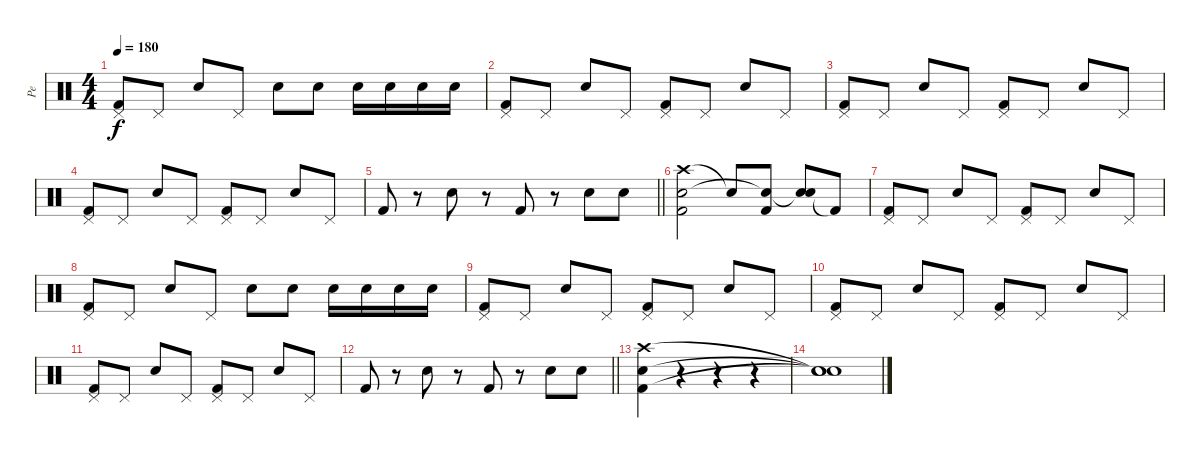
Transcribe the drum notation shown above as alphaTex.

\track ("Pe" "Pe") {instrument percussion}
\staff {score}
\articulation defaults
\ts (4 4)
\tempo 180
\clef neutral
\ks c
("Kick (hit) 2" "Pedal Hi-Hat (hit)").8{dy f} "Pedal Hi-Hat (hit)".8 "Snare (hit) 2".8 "Pedal Hi-Hat (hit)".8 "Snare (hit) 2".8 "Snare (hit) 2".8 "Snare (hit) 2".16 "Snare (hit) 2".16 "Snare (hit) 2".16 "Snare (hit) 2".16 |
("Kick (hit) 2" "Pedal Hi-Hat (hit)").8 "Pedal Hi-Hat (hit)".8 "Snare (hit) 2".8 "Pedal Hi-Hat (hit)".8 ("Kick (hit) 2" "Pedal Hi-Hat (hit)").8 "Pedal Hi-Hat (hit)".8 "Snare (hit) 2".8 "Pedal Hi-Hat (hit)".8 |
("Kick (hit) 2" "Pedal Hi-Hat (hit)").8 "Pedal Hi-Hat (hit)".8 "Snare (hit) 2".8 "Pedal Hi-Hat (hit)".8 ("Kick (hit) 2" "Pedal Hi-Hat (hit)").8 "Pedal Hi-Hat (hit)".8 "Snare (hit) 2".8 "Pedal Hi-Hat (hit)".8 |
("Kick (hit) 2" "Pedal Hi-Hat (hit)").8 "Pedal Hi-Hat (hit)".8 "Snare (hit) 2".8 "Pedal Hi-Hat (hit)".8 ("Kick (hit) 2" "Pedal Hi-Hat (hit)").8 "Pedal Hi-Hat (hit)".8 "Snare (hit) 2".8 "Pedal Hi-Hat (hit)".8 |
\barLineRight lightlight "Kick (hit) 2".8
r.8 "Snare (hit) 2".8 r.8 "Kick (hit) 2".8 r.8 "Snare (hit) 2".8 "Snare (hit) 2".8 |
("Crash high (hit)" "Snare (hit) 2" "Kick (hit) 2").2 "Snare (hit)"{t}.8 ("Kick (hit) 2" "Snare (hit) 2"{t}).8 ("Snare (hit) 2" "Snare (hit) 2"{t}).8 "Kick (hit) 2"{t}.8 |
("Kick (hit) 2" "Pedal Hi-Hat (hit)").8 "Pedal Hi-Hat (hit)".8 "Snare (hit) 2".8 "Pedal Hi-Hat (hit)".8 ("Kick (hit) 2" "Pedal Hi-Hat (hit)").8 "Pedal Hi-Hat (hit)".8 "Snare (hit) 2".8 "Pedal Hi-Hat (hit)".8 |
("Kick (hit) 2" "Pedal Hi-Hat (hit)").8 "Pedal Hi-Hat (hit)".8 "Snare (hit) 2".8 "Pedal Hi-Hat (hit)".8 "Snare (hit) 2".8 "Snare (hit) 2".8 "Snare (hit) 2".16 "Snare (hit) 2".16 "Snare (hit) 2".16 "Snare (hit) 2".16 |
("Kick (hit) 2" "Pedal Hi-Hat (hit)").8 "Pedal Hi-Hat (hit)".8 "Snare (hit) 2".8 "Pedal Hi-Hat (hit)".8 ("Kick (hit) 2" "Pedal Hi-Hat (hit)").8 "Pedal Hi-Hat (hit)".8 "Snare (hit) 2".8 "Pedal Hi-Hat (hit)".8 |
("Kick (hit) 2" "Pedal Hi-Hat (hit)").8 "Pedal Hi-Hat (hit)".8 "Snare (hit) 2".8 "Pedal Hi-Hat (hit)".8 ("Kick (hit) 2" "Pedal Hi-Hat (hit)").8 "Pedal Hi-Hat (hit)".8 "Snare (hit) 2".8 "Pedal Hi-Hat (hit)".8 |
("Kick (hit) 2" "Pedal Hi-Hat (hit)").8 "Pedal Hi-Hat (hit)".8 "Snare (hit) 2".8 "Pedal Hi-Hat (hit)".8 ("Kick (hit) 2" "Pedal Hi-Hat (hit)").8 "Pedal Hi-Hat (hit)".8 "Snare (hit) 2".8 "Pedal Hi-Hat (hit)".8 |
\barLineRight lightlight "Kick (hit) 2".8
r.8 "Snare (hit) 2".8 r.8 "Kick (hit) 2".8 r.8 "Snare (hit) 2".8 "Snare (hit) 2".8 |
("Crash high (hit)" "Snare (hit) 2" "Kick (hit) 2").4 r.4 r.4 r.4 |
("Snare (hit)"{t} "Snare (hit)"{t} "Snare (hit)"{t}).1
